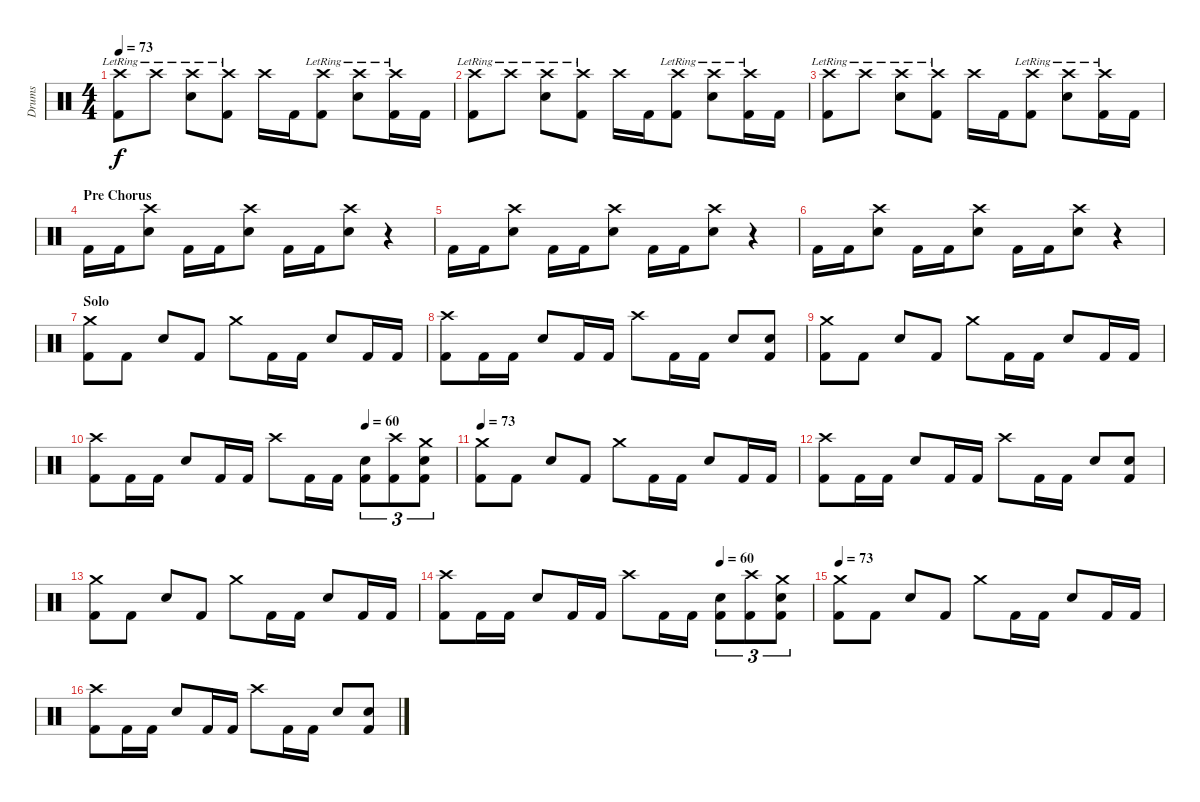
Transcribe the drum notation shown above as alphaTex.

\track ("Drums" "Drums") {instrument percussion}
\staff {score}
\articulation defaults
\ts (4 4)
\tempo 73
\clef neutral
\ks c
("Crash high (hit)"{lr} "Kick (hit) 2").8{dy f} "Crash high (hit)"{lr}.8 ("Crash high (hit)"{lr} "Snare (hit) 2").8 ("Crash high (hit)"{lr} "Kick (hit) 2").8 "Crash high (hit)".16 "Kick (hit) 2".16 ("Crash high (hit)"{lr} "Kick (hit) 2").8 ("Crash high (hit)"{lr} "Snare (hit) 2").8 ("Crash high (hit)"{lr} "Kick (hit) 2").16 "Kick (hit) 2".16 |
("Crash high (hit)"{lr} "Kick (hit) 2").8 "Crash high (hit)"{lr}.8 ("Crash high (hit)"{lr} "Snare (hit) 2").8 ("Crash high (hit)"{lr} "Kick (hit) 2").8 "Crash high (hit)".16 "Kick (hit) 2".16 ("Crash high (hit)"{lr} "Kick (hit) 2").8 ("Crash high (hit)"{lr} "Snare (hit) 2").8 ("Crash high (hit)"{lr} "Kick (hit) 2").16 "Kick (hit) 2".16 |
("Crash high (hit)"{lr} "Kick (hit) 2").8 "Crash high (hit)"{lr}.8 ("Crash high (hit)"{lr} "Snare (hit) 2").8 ("Crash high (hit)"{lr} "Kick (hit) 2").8 "Crash high (hit)".16 "Kick (hit) 2".16 ("Crash high (hit)"{lr} "Kick (hit) 2").8 ("Crash high (hit)"{lr} "Snare (hit) 2").8 ("Crash high (hit)"{lr} "Kick (hit) 2").16 "Kick (hit) 2".16 |
\section ("" "Pre Chorus")
"Kick (hit) 2".16 "Kick (hit) 2".16 ("Crash high (hit)" "Snare (hit) 2").8 "Kick (hit) 2".16 "Kick (hit) 2".16 ("Crash high (hit)" "Snare (hit) 2").8 "Kick (hit) 2".16 "Kick (hit) 2".16 ("Crash high (hit)" "Snare (hit) 2").8 r.4 |
"Kick (hit) 2".16 "Kick (hit) 2".16 ("Crash high (hit)" "Snare (hit) 2").8 "Kick (hit) 2".16 "Kick (hit) 2".16 ("Crash high (hit)" "Snare (hit) 2").8 "Kick (hit) 2".16 "Kick (hit) 2".16 ("Crash high (hit)" "Snare (hit) 2").8 r.4 |
"Kick (hit) 2".16 "Kick (hit) 2".16 ("Crash high (hit)" "Snare (hit) 2").8 "Kick (hit) 2".16 "Kick (hit) 2".16 ("Crash high (hit)" "Snare (hit) 2").8 "Kick (hit) 2".16 "Kick (hit) 2".16 ("Crash high (hit)" "Snare (hit) 2").8 r.4 |
\section ("" "Solo")
("Crash medium (hit)" "Kick (hit) 2").8 "Kick (hit) 2".8 "Snare (hit) 2".8 "Kick (hit) 2".8 "Crash medium (hit)".8 "Kick (hit) 2".16 "Kick (hit) 2".16 "Snare (hit) 2".8 "Kick (hit) 2".16 "Kick (hit) 2".16 |
("Crash high (hit)" "Kick (hit) 2").8 "Kick (hit) 2".16 "Kick (hit) 2".16 "Snare (hit) 2".8 "Kick (hit) 2".16 "Kick (hit) 2".16 "Crash high (hit)".8 "Kick (hit) 2".16 "Kick (hit) 2".16 "Snare (hit) 2".8 ("Snare (hit) 2" "Kick (hit) 2").8 |
("Crash medium (hit)" "Kick (hit) 2").8 "Kick (hit) 2".8 "Snare (hit) 2".8 "Kick (hit) 2".8 "Crash medium (hit)".8 "Kick (hit) 2".16 "Kick (hit) 2".16 "Snare (hit) 2".8 "Kick (hit) 2".16 "Kick (hit) 2".16 |
\tempo (60 0.75)
("Crash high (hit)" "Kick (hit) 2").8 "Kick (hit) 2".16 "Kick (hit) 2".16 "Snare (hit) 2".8 "Kick (hit) 2".16 "Kick (hit) 2".16 "Crash high (hit)".8 "Kick (hit) 2".16 "Kick (hit) 2".16 ("Snare (hit) 2" "Kick (hit) 2").8{tu (3 2)} ("Crash high (hit)" "Kick (hit) 2").8{tu (3 2)} ("Crash medium (hit)" "Snare (hit) 2" "Kick (hit) 2").8{tu (3 2)} |
\tempo 73
("Crash medium (hit)" "Kick (hit) 2").8 "Kick (hit) 2".8 "Snare (hit) 2".8 "Kick (hit) 2".8 "Crash medium (hit)".8 "Kick (hit) 2".16 "Kick (hit) 2".16 "Snare (hit) 2".8 "Kick (hit) 2".16 "Kick (hit) 2".16 |
("Crash high (hit)" "Kick (hit) 2").8 "Kick (hit) 2".16 "Kick (hit) 2".16 "Snare (hit) 2".8 "Kick (hit) 2".16 "Kick (hit) 2".16 "Crash high (hit)".8 "Kick (hit) 2".16 "Kick (hit) 2".16 "Snare (hit) 2".8 ("Snare (hit) 2" "Kick (hit) 2").8 |
("Crash medium (hit)" "Kick (hit) 2").8 "Kick (hit) 2".8 "Snare (hit) 2".8 "Kick (hit) 2".8 "Crash medium (hit)".8 "Kick (hit) 2".16 "Kick (hit) 2".16 "Snare (hit) 2".8 "Kick (hit) 2".16 "Kick (hit) 2".16 |
\tempo (60 0.75)
("Crash high (hit)" "Kick (hit) 2").8 "Kick (hit) 2".16 "Kick (hit) 2".16 "Snare (hit) 2".8 "Kick (hit) 2".16 "Kick (hit) 2".16 "Crash high (hit)".8 "Kick (hit) 2".16 "Kick (hit) 2".16 ("Snare (hit) 2" "Kick (hit) 2").8{tu (3 2)} ("Crash high (hit)" "Kick (hit) 2").8{tu (3 2)} ("Crash medium (hit)" "Snare (hit) 2" "Kick (hit) 2").8{tu (3 2)} |
\tempo 73
("Crash medium (hit)" "Kick (hit) 2").8 "Kick (hit) 2".8 "Snare (hit) 2".8 "Kick (hit) 2".8 "Crash medium (hit)".8 "Kick (hit) 2".16 "Kick (hit) 2".16 "Snare (hit) 2".8 "Kick (hit) 2".16 "Kick (hit) 2".16 |
("Crash high (hit)" "Kick (hit) 2").8 "Kick (hit) 2".16 "Kick (hit) 2".16 "Snare (hit) 2".8 "Kick (hit) 2".16 "Kick (hit) 2".16 "Crash high (hit)".8 "Kick (hit) 2".16 "Kick (hit) 2".16 "Snare (hit) 2".8 ("Snare (hit) 2" "Kick (hit) 2").8
